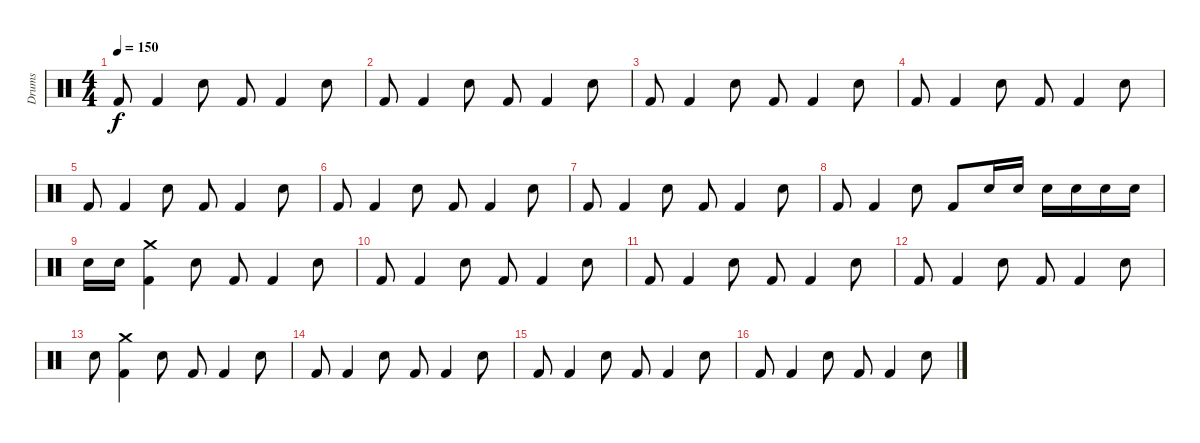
\track ("Drums" "Drums") {instrument percussion}
\staff {score}
\articulation defaults
\ts (4 4)
\tempo 150
\clef neutral
\ks c "Kick (hit) 2".8{dy f} "Kick (hit) 2".4 "Snare (hit) 2".8 "Kick (hit) 2".8 "Kick (hit) 2".4 "Snare (hit) 2".8
|
"Kick (hit) 2".8 "Kick (hit) 2".4 "Snare (hit) 2".8 "Kick (hit) 2".8 "Kick (hit) 2".4 "Snare (hit) 2".8 |
"Kick (hit) 2".8 "Kick (hit) 2".4 "Snare (hit) 2".8 "Kick (hit) 2".8 "Kick (hit) 2".4 "Snare (hit) 2".8 |
"Kick (hit) 2".8 "Kick (hit) 2".4 "Snare (hit) 2".8 "Kick (hit) 2".8 "Kick (hit) 2".4 "Snare (hit) 2".8 |
"Kick (hit) 2".8 "Kick (hit) 2".4 "Snare (hit) 2".8 "Kick (hit) 2".8 "Kick (hit) 2".4 "Snare (hit) 2".8 |
"Kick (hit) 2".8 "Kick (hit) 2".4 "Snare (hit) 2".8 "Kick (hit) 2".8 "Kick (hit) 2".4 "Snare (hit) 2".8 |
"Kick (hit) 2".8 "Kick (hit) 2".4 "Snare (hit) 2".8 "Kick (hit) 2".8 "Kick (hit) 2".4 "Snare (hit) 2".8 |
"Kick (hit) 2".8 "Kick (hit) 2".4 "Snare (hit) 2".8 "Kick (hit) 2".8 "Snare (hit) 2".16 "Snare (hit) 2".16 "Snare (hit) 2".16 "Snare (hit) 2".16 "Snare (hit) 2".16 "Snare (hit) 2".16 |
"Snare (hit) 2".16 "Snare (hit) 2".16 ("Crash medium (hit)" "Kick (hit) 2").4 "Snare (hit) 2".8 "Kick (hit) 2".8 "Kick (hit) 2".4 "Snare (hit) 2".8 |
"Kick (hit) 2".8 "Kick (hit) 2".4 "Snare (hit) 2".8 "Kick (hit) 2".8 "Kick (hit) 2".4 "Snare (hit) 2".8 |
"Kick (hit) 2".8 "Kick (hit) 2".4 "Snare (hit) 2".8 "Kick (hit) 2".8 "Kick (hit) 2".4 "Snare (hit) 2".8 |
"Kick (hit) 2".8 "Kick (hit) 2".4 "Snare (hit) 2".8 "Kick (hit) 2".8 "Kick (hit) 2".4 "Snare (hit) 2".8 |
"Snare (hit) 2".8 ("Crash medium (hit)" "Kick (hit) 2").4 "Snare (hit) 2".8 "Kick (hit) 2".8 "Kick (hit) 2".4 "Snare (hit) 2".8 |
"Kick (hit) 2".8 "Kick (hit) 2".4 "Snare (hit) 2".8 "Kick (hit) 2".8 "Kick (hit) 2".4 "Snare (hit) 2".8 |
"Kick (hit) 2".8 "Kick (hit) 2".4 "Snare (hit) 2".8 "Kick (hit) 2".8 "Kick (hit) 2".4 "Snare (hit) 2".8 |
"Kick (hit) 2".8 "Kick (hit) 2".4 "Snare (hit) 2".8 "Kick (hit) 2".8 "Kick (hit) 2".4 "Snare (hit) 2".8
